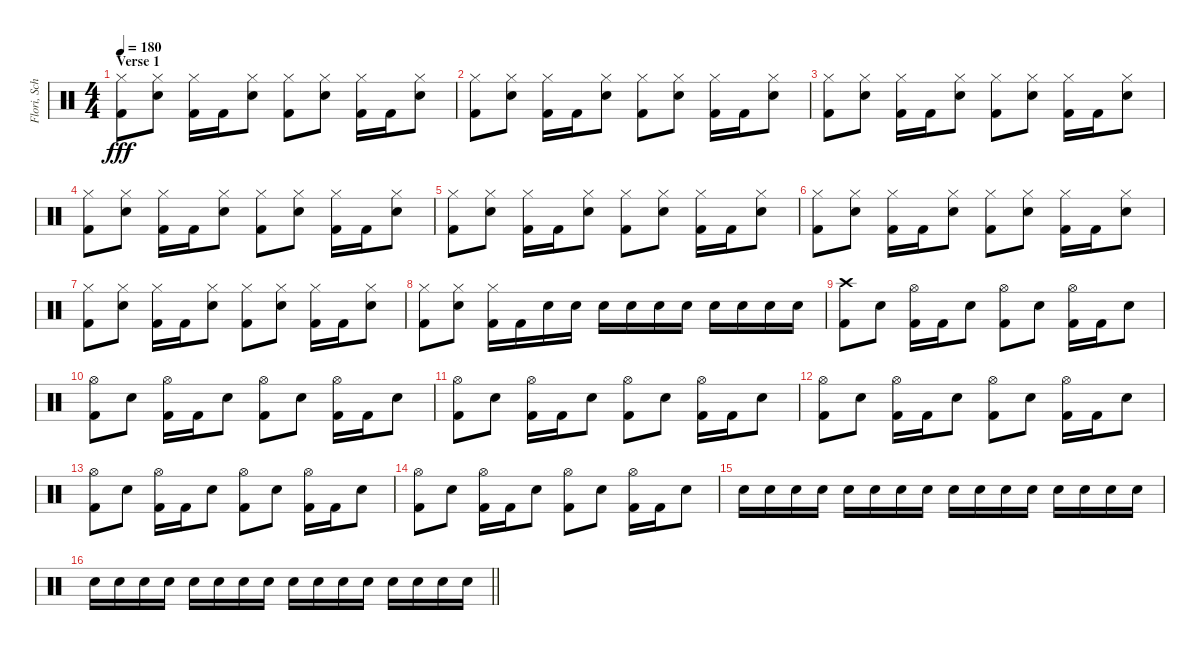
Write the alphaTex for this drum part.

\track ("Flori, Schlagzeug" "Flori, Sch") {instrument percussion}
\staff {score}
\articulation defaults
\ts (4 4)
\section ("" "Verse 1")
\tempo 180
\clef neutral
\ks c
("Hi-Hat (closed)" "Kick (hit) 2").8{dy fff} ("Hi-Hat (closed)" "Electric Snare (hit)").8 ("Hi-Hat (closed)" "Kick (hit) 2").16 "Kick (hit) 2".16 ("Hi-Hat (closed)" "Electric Snare (hit)").8 ("Hi-Hat (closed)" "Kick (hit) 2").8 ("Hi-Hat (closed)" "Electric Snare (hit)").8 ("Hi-Hat (closed)" "Kick (hit) 2").16 "Kick (hit) 2".16 ("Hi-Hat (closed)" "Electric Snare (hit)").8 |
("Hi-Hat (closed)" "Kick (hit) 2").8 ("Hi-Hat (closed)" "Electric Snare (hit)").8 ("Hi-Hat (closed)" "Kick (hit) 2").16 "Kick (hit) 2".16 ("Hi-Hat (closed)" "Electric Snare (hit)").8 ("Hi-Hat (closed)" "Kick (hit) 2").8 ("Hi-Hat (closed)" "Electric Snare (hit)").8 ("Hi-Hat (closed)" "Kick (hit) 2").16 "Kick (hit) 2".16 ("Hi-Hat (closed)" "Electric Snare (hit)").8 |
("Hi-Hat (closed)" "Kick (hit) 2").8 ("Hi-Hat (closed)" "Electric Snare (hit)").8 ("Hi-Hat (closed)" "Kick (hit) 2").16 "Kick (hit) 2".16 ("Hi-Hat (closed)" "Electric Snare (hit)").8 ("Hi-Hat (closed)" "Kick (hit) 2").8 ("Hi-Hat (closed)" "Electric Snare (hit)").8 ("Hi-Hat (closed)" "Kick (hit) 2").16 "Kick (hit) 2".16 ("Hi-Hat (closed)" "Electric Snare (hit)").8 |
("Hi-Hat (closed)" "Kick (hit) 2").8 ("Hi-Hat (closed)" "Electric Snare (hit)").8 ("Hi-Hat (closed)" "Kick (hit) 2").16 "Kick (hit) 2".16 ("Hi-Hat (closed)" "Electric Snare (hit)").8 ("Hi-Hat (closed)" "Kick (hit) 2").8 ("Hi-Hat (closed)" "Electric Snare (hit)").8 ("Hi-Hat (closed)" "Kick (hit) 2").16 "Kick (hit) 2".16 ("Hi-Hat (closed)" "Electric Snare (hit)").8 |
("Hi-Hat (closed)" "Kick (hit) 2").8 ("Hi-Hat (closed)" "Electric Snare (hit)").8 ("Hi-Hat (closed)" "Kick (hit) 2").16 "Kick (hit) 2".16 ("Hi-Hat (closed)" "Electric Snare (hit)").8 ("Hi-Hat (closed)" "Kick (hit) 2").8 ("Hi-Hat (closed)" "Electric Snare (hit)").8 ("Hi-Hat (closed)" "Kick (hit) 2").16 "Kick (hit) 2".16 ("Hi-Hat (closed)" "Electric Snare (hit)").8 |
("Hi-Hat (closed)" "Kick (hit) 2").8 ("Hi-Hat (closed)" "Electric Snare (hit)").8 ("Hi-Hat (closed)" "Kick (hit) 2").16 "Kick (hit) 2".16 ("Hi-Hat (closed)" "Electric Snare (hit)").8 ("Hi-Hat (closed)" "Kick (hit) 2").8 ("Hi-Hat (closed)" "Electric Snare (hit)").8 ("Hi-Hat (closed)" "Kick (hit) 2").16 "Kick (hit) 2".16 ("Hi-Hat (closed)" "Electric Snare (hit)").8 |
("Hi-Hat (closed)" "Kick (hit) 2").8 ("Hi-Hat (closed)" "Electric Snare (hit)").8 ("Hi-Hat (closed)" "Kick (hit) 2").16 "Kick (hit) 2".16 ("Hi-Hat (closed)" "Electric Snare (hit)").8 ("Hi-Hat (closed)" "Kick (hit) 2").8 ("Hi-Hat (closed)" "Electric Snare (hit)").8 ("Hi-Hat (closed)" "Kick (hit) 2").16 "Kick (hit) 2".16 ("Hi-Hat (closed)" "Electric Snare (hit)").8 |
("Hi-Hat (closed)" "Kick (hit) 2").8 ("Hi-Hat (closed)" "Electric Snare (hit)").8 ("Hi-Hat (closed)" "Kick (hit) 2").16 "Kick (hit) 2".16 "Electric Snare (hit)".16 "Electric Snare (hit)".16 "Electric Snare (hit)".16 "Electric Snare (hit)".16 "Electric Snare (hit)".16 "Electric Snare (hit)".16 "Electric Snare (hit)".16 "Electric Snare (hit)".16 "Electric Snare (hit)".16 "Electric Snare (hit)".16 |
("Crash high (hit)" "Kick (hit) 2").8 "Electric Snare (hit)".8 ("Hi-Hat (open)" "Kick (hit) 2").16 "Kick (hit) 2".16 "Electric Snare (hit)".8 ("Hi-Hat (open)" "Kick (hit) 2").8 "Electric Snare (hit)".8 ("Hi-Hat (open)" "Kick (hit) 2").16 "Kick (hit) 2".16 "Electric Snare (hit)".8 |
("Hi-Hat (open)" "Kick (hit) 2").8 "Electric Snare (hit)".8 ("Hi-Hat (open)" "Kick (hit) 2").16 "Kick (hit) 2".16 "Electric Snare (hit)".8 ("Hi-Hat (open)" "Kick (hit) 2").8 "Electric Snare (hit)".8 ("Hi-Hat (open)" "Kick (hit) 2").16 "Kick (hit) 2".16 "Electric Snare (hit)".8 |
("Hi-Hat (open)" "Kick (hit) 2").8 "Electric Snare (hit)".8 ("Hi-Hat (open)" "Kick (hit) 2").16 "Kick (hit) 2".16 "Electric Snare (hit)".8 ("Hi-Hat (open)" "Kick (hit) 2").8 "Electric Snare (hit)".8 ("Hi-Hat (open)" "Kick (hit) 2").16 "Kick (hit) 2".16 "Electric Snare (hit)".8 |
("Hi-Hat (open)" "Kick (hit) 2").8 "Electric Snare (hit)".8 ("Hi-Hat (open)" "Kick (hit) 2").16 "Kick (hit) 2".16 "Electric Snare (hit)".8 ("Hi-Hat (open)" "Kick (hit) 2").8 "Electric Snare (hit)".8 ("Hi-Hat (open)" "Kick (hit) 2").16 "Kick (hit) 2".16 "Electric Snare (hit)".8 |
("Hi-Hat (open)" "Kick (hit) 2").8 "Electric Snare (hit)".8 ("Hi-Hat (open)" "Kick (hit) 2").16 "Kick (hit) 2".16 "Electric Snare (hit)".8 ("Hi-Hat (open)" "Kick (hit) 2").8 "Electric Snare (hit)".8 ("Hi-Hat (open)" "Kick (hit) 2").16 "Kick (hit) 2".16 "Electric Snare (hit)".8 |
("Hi-Hat (open)" "Kick (hit) 2").8 "Electric Snare (hit)".8 ("Hi-Hat (open)" "Kick (hit) 2").16 "Kick (hit) 2".16 "Electric Snare (hit)".8 ("Hi-Hat (open)" "Kick (hit) 2").8 "Electric Snare (hit)".8 ("Hi-Hat (open)" "Kick (hit) 2").16 "Kick (hit) 2".16 "Electric Snare (hit)".8 |
"Electric Snare (hit)".16 "Electric Snare (hit)".16 "Electric Snare (hit)".16 "Electric Snare (hit)".16 "Electric Snare (hit)".16 "Electric Snare (hit)".16 "Electric Snare (hit)".16 "Electric Snare (hit)".16 "Electric Snare (hit)".16 "Electric Snare (hit)".16 "Electric Snare (hit)".16 "Electric Snare (hit)".16 "Electric Snare (hit)".16 "Electric Snare (hit)".16 "Electric Snare (hit)".16 "Electric Snare (hit)".16 |
\barLineRight lightlight "Electric Snare (hit)".16 "Electric Snare (hit)".16 "Electric Snare (hit)".16 "Electric Snare (hit)".16 "Electric Snare (hit)".16 "Electric Snare (hit)".16 "Electric Snare (hit)".16 "Electric Snare (hit)".16 "Electric Snare (hit)".16 "Electric Snare (hit)".16 "Electric Snare (hit)".16 "Electric Snare (hit)".16 "Electric Snare (hit)".16 "Electric Snare (hit)".16 "Electric Snare (hit)".16 "Electric Snare (hit)".16
